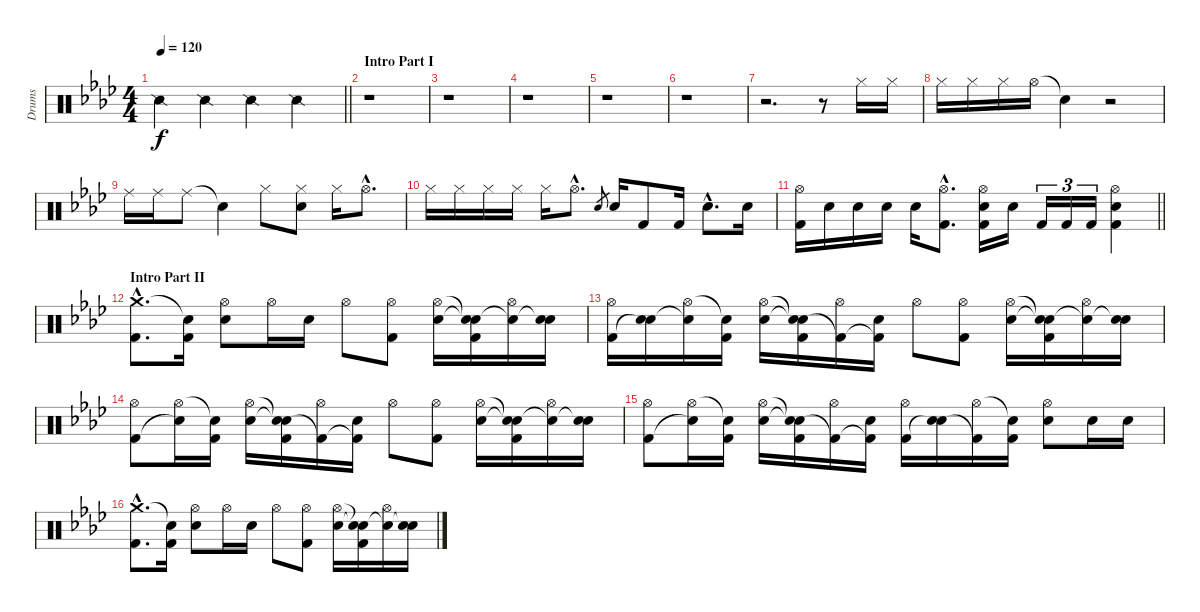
\track ("Drums" "Drums") {instrument percussion}
\staff {score}
\articulation defaults
\ts (4 4)
\tempo 120
\clef neutral
\barLineRight lightlight
\ks fminor "Snare (side stick) 2".4{dy f} "Snare (side stick) 2".4 "Snare (side stick) 2".4 "Snare (side stick) 2".4
|
\section ("" "Intro Part I")
r.1 |
r.1 |
r.1 |
r.1 |
r.1 |
r.2{d} r.8 "Hi-Hat (closed)".16 "Hi-Hat (closed)".16 |
"Hi-Hat (closed)".16 "Hi-Hat (closed)".16 "Hi-Hat (closed)".16 "Hi-Hat (open)".16 "Snare (hit)"{t}.4 r.2 |
"Ride (middle)".16 "Ride (middle)".16 "Ride (middle)".8 "Snare (hit)"{t}.4 "Hi-Hat (closed)".8 ("Hi-Hat (closed)" "Snare (hit)").8 "Hi-Hat (closed)".16 "Hi-Hat (open)"{hac}.8{d} |
"Hi-Hat (closed)".16 "Hi-Hat (closed)".16 "Hi-Hat (closed)".16 "Hi-Hat (closed)".16 "Hi-Hat (closed)".16 "Hi-Hat (open)"{hac}.8{d} "Electric Snare (hit)".8{gr} "Electric Snare (hit)".16 "Kick (hit) 2".8 "Kick (hit) 2".16 "Electric Snare (hit)"{hac}.8{d} "Electric Snare (hit)".16 |
\barLineRight lightlight
("Hi-Hat (open)" "Kick (hit) 2").16 "Electric Snare (hit)".16 "Electric Snare (hit)".16 "Electric Snare (hit)".16 "Electric Snare (hit)".16 ("Hi-Hat (open)"{hac} "Kick (hit) 2"{hac}).8{d} ("Hi-Hat (open)" "Electric Snare (hit)" "Kick (hit) 2").16 "Electric Snare (hit)".16 "Kick (hit) 2".16{tu (3 2)} "Kick (hit) 2".16{tu (3 2)} "Kick (hit) 2".16{tu (3 2)} ("Hi-Hat (open)" "Electric Snare (hit)" "Kick (hit) 2").4 |
\section ("" "Intro Part II")
("Crash medium (hit)"{hac} "Kick (hit) 2"{hac}).8{d} ("Snare (hit)"{t} "Kick (hit) 2").16 ("Hi-Hat (open)" "Electric Snare (hit)").8 "Hi-Hat (open)".16 "Electric Snare (hit)".16 "Hi-Hat (open)".8 ("Hi-Hat (open)" "Kick (hit) 2").8 ("Hi-Hat (open)" "Electric Snare (hit)").16 ("Snare (hit)"{t} "Snare (hit)"{t} "Kick (hit) 2").16 ("Hi-Hat (open)" "Snare (hit)"{t}).16 ("Electric Snare (hit)" "Snare (hit)"{t}).16 |
("Hi-Hat (open)" "Kick (hit) 2").16 ("Electric Snare (hit)" "Snare (hit)"{t}).16 ("Hi-Hat (open)" "Snare (hit)"{t}).16 ("Snare (hit)"{t} "Kick (hit) 2").16 ("Hi-Hat (open)" "Electric Snare (hit)").16 ("Snare (hit)"{t} "Snare (hit)"{t} "Kick (hit) 2").16 ("Hi-Hat (open)" "Kick (hit) 2"{t}).16 ("Electric Snare (hit)" "Kick (hit) 2"{t}).16 "Hi-Hat (open)".8 ("Hi-Hat (open)" "Kick (hit) 2").8 ("Hi-Hat (open)" "Electric Snare (hit)").16 ("Snare (hit)"{t} "Snare (hit)"{t} "Kick (hit) 2").16 ("Hi-Hat (open)" "Snare (hit)"{t}).16 ("Electric Snare (hit)" "Snare (hit)"{t}).16 |
("Hi-Hat (open)" "Kick (hit) 2").8 ("Hi-Hat (open)" "Snare (hit)"{t}).16 ("Snare (hit)"{t} "Kick (hit) 2").16 ("Hi-Hat (open)" "Electric Snare (hit)").16 ("Snare (hit)"{t} "Snare (hit)"{t} "Kick (hit) 2").16 ("Hi-Hat (open)" "Kick (hit) 2"{t}).16 ("Electric Snare (hit)" "Kick (hit) 2"{t}).16 "Hi-Hat (open)".8 ("Hi-Hat (open)" "Kick (hit) 2").8 ("Hi-Hat (open)" "Electric Snare (hit)").16 ("Snare (hit)"{t} "Snare (hit)"{t} "Kick (hit) 2").16 ("Hi-Hat (open)" "Snare (hit)"{t}).16 ("Electric Snare (hit)" "Snare (hit)"{t}).16 |
("Hi-Hat (open)" "Kick (hit) 2").8 ("Hi-Hat (open)" "Snare (hit)"{t}).16 ("Snare (hit)"{t} "Kick (hit) 2").16 ("Hi-Hat (open)" "Electric Snare (hit)").16 ("Snare (hit)"{t} "Snare (hit)"{t} "Kick (hit) 2").16 ("Hi-Hat (open)" "Kick (hit) 2"{t}).16 ("Electric Snare (hit)" "Kick (hit) 2"{t}).16 ("Hi-Hat (open)" "Kick (hit) 2").16 ("Electric Snare (hit)" "Snare (hit)"{t}).16 ("Hi-Hat (open)" "Kick (hit) 2"{t}).16 ("Snare (hit)"{t} "Kick (hit) 2").16 ("Hi-Hat (open)" "Electric Snare (hit)").8 "Electric Snare (hit)".16 "Electric Snare (hit)".16 |
("Crash medium (hit)"{hac} "Kick (hit) 2"{hac}).8{d} ("Snare (hit)"{t} "Kick (hit) 2").16 ("Hi-Hat (open)" "Electric Snare (hit)").8 "Hi-Hat (open)".16 "Electric Snare (hit)".16 "Hi-Hat (open)".8 ("Hi-Hat (open)" "Kick (hit) 2").8 ("Hi-Hat (open)" "Electric Snare (hit)").16 ("Snare (hit)"{t} "Snare (hit)"{t} "Kick (hit) 2").16 ("Hi-Hat (open)" "Snare (hit)"{t}).16 ("Electric Snare (hit)" "Snare (hit)"{t}).16
